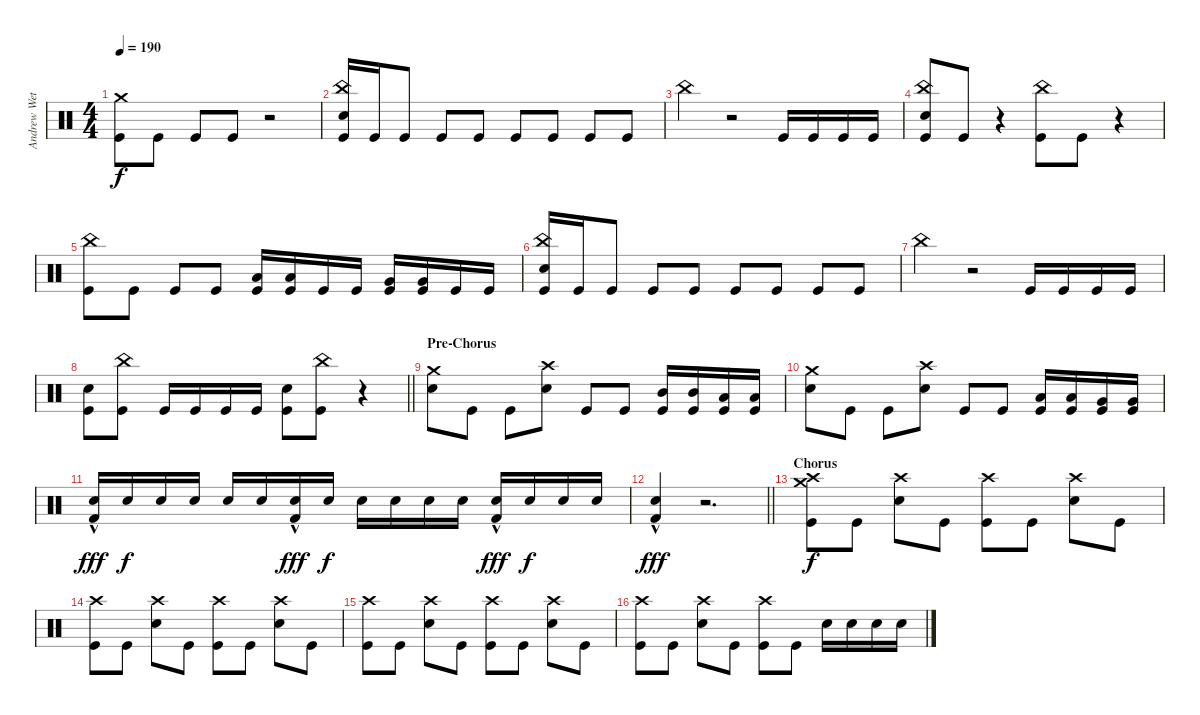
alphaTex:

\track ("Andrew Wetzel" "Andrew Wet") {instrument percussion}
\staff {score}
\articulation defaults
\ts (4 4)
\tempo 190
\clef neutral
\ks c
("Crash medium (hit)" "Kick (hit)").8{dy f} "Kick (hit)".8 "Kick (hit)".8 "Kick (hit)".8 r.2 |
("China (hit)" "Snare (hit) 2" "Kick (hit)").16 "Kick (hit)".16 "Kick (hit)".8 "Kick (hit)".8 "Kick (hit)".8 "Kick (hit)".8 "Kick (hit)".8 "Kick (hit)".8 "Kick (hit)".8 |
"China (hit)".4 r.2 "Kick (hit)".16 "Kick (hit)".16 "Kick (hit)".16 "Kick (hit)".16 |
("China (hit)" "Snare (hit) 2" "Kick (hit)").8 "Kick (hit)".8 r.4 ("China (hit)" "Kick (hit)").8 "Kick (hit)".8 r.4 |
("China (hit)" "Kick (hit)").8 "Kick (hit)".8 "Kick (hit)".8 "Kick (hit)".8 ("Low Tom (hit)" "Kick (hit)").16 ("Low Tom (hit)" "Kick (hit)").16 "Kick (hit)".16 "Kick (hit)".16 ("Very Low Tom (hit)" "Kick (hit)").16 ("Very Low Tom (hit)" "Kick (hit)").16 "Kick (hit)".16 "Kick (hit)".16 |
("China (hit)" "Snare (hit) 2" "Kick (hit)").16 "Kick (hit)".16 "Kick (hit)".8 "Kick (hit)".8 "Kick (hit)".8 "Kick (hit)".8 "Kick (hit)".8 "Kick (hit)".8 "Kick (hit)".8 |
"China (hit)".4 r.2 "Kick (hit)".16 "Kick (hit)".16 "Kick (hit)".16 "Kick (hit)".16 |
\barLineRight lightlight
("Snare (hit) 2" "Kick (hit)").8 ("China (hit)" "Kick (hit)").8 "Kick (hit)".16 "Kick (hit)".16 "Kick (hit)".16 "Kick (hit)".16 ("Snare (hit) 2" "Kick (hit)").8 ("China (hit)" "Kick (hit)").8 r.4 |
\section ("" "Pre-Chorus")
("Crash medium (hit)" "Snare (hit) 2").8 "Kick (hit)".8 "Kick (hit)".8 ("Crash high (hit)" "Snare (hit) 2").8 "Kick (hit)".8 "Kick (hit)".8 ("Mid Tom (hit)" "Kick (hit)").16 ("Mid Tom (hit)" "Kick (hit)").16 ("Low Tom (hit)" "Kick (hit)").16 ("Low Tom (hit)" "Kick (hit)").16 |
("Crash medium (hit)" "Snare (hit) 2").8 "Kick (hit)".8 "Kick (hit)".8 ("Crash high (hit)" "Snare (hit) 2").8 "Kick (hit)".8 "Kick (hit)".8 ("Low Tom (hit)" "Kick (hit)").16 ("Low Tom (hit)" "Kick (hit)").16 ("Very Low Tom (hit)" "Kick (hit)").16 ("Very Low Tom (hit)" "Kick (hit)").16 |
("Snare (hit) 2"{hac} "Kick (hit) 2"{hac}).16{dy fff} "Snare (hit) 2".16{dy f} "Snare (hit) 2".16 "Snare (hit) 2".16 "Snare (hit) 2".16 "Snare (hit) 2".16 ("Snare (hit) 2"{hac} "Kick (hit) 2"{hac}).16{dy fff} "Snare (hit) 2".16{dy f} "Snare (hit) 2".16 "Snare (hit) 2".16 "Snare (hit) 2".16 "Snare (hit) 2".16 ("Snare (hit) 2"{hac} "Kick (hit) 2"{hac}).16{dy fff} "Snare (hit) 2".16{dy f} "Snare (hit) 2".16 "Snare (hit) 2".16 |
\barLineRight lightlight
("Snare (hit) 2"{hac} "Kick (hit) 2"{hac}).4{dy fff} r.2{d} |
\section ("" "Chorus")
("Crash high (hit)" "Crash medium (hit)" "Kick (hit)").8{dy f} "Kick (hit)".8 ("Crash high (hit)" "Snare (hit) 2").8 "Kick (hit)".8 ("Crash high (hit)" "Kick (hit)").8 "Kick (hit)".8 ("Crash high (hit)" "Snare (hit) 2").8 "Kick (hit)".8 |
("Crash high (hit)" "Kick (hit)").8 "Kick (hit)".8 ("Crash high (hit)" "Snare (hit) 2").8 "Kick (hit)".8 ("Crash high (hit)" "Kick (hit)").8 "Kick (hit)".8 ("Crash high (hit)" "Snare (hit) 2").8 "Kick (hit)".8 |
("Crash high (hit)" "Kick (hit)").8 "Kick (hit)".8 ("Crash high (hit)" "Snare (hit) 2").8 "Kick (hit)".8 ("Crash high (hit)" "Kick (hit)").8 "Kick (hit)".8 ("Crash high (hit)" "Snare (hit) 2").8 "Kick (hit)".8 |
("Crash high (hit)" "Kick (hit)").8 "Kick (hit)".8 ("Crash high (hit)" "Snare (hit) 2").8 "Kick (hit)".8 ("Crash high (hit)" "Kick (hit)").8 "Kick (hit)".8 "Snare (hit) 2".16 "Snare (hit) 2".16 "Snare (hit) 2".16 "Snare (hit) 2".16
